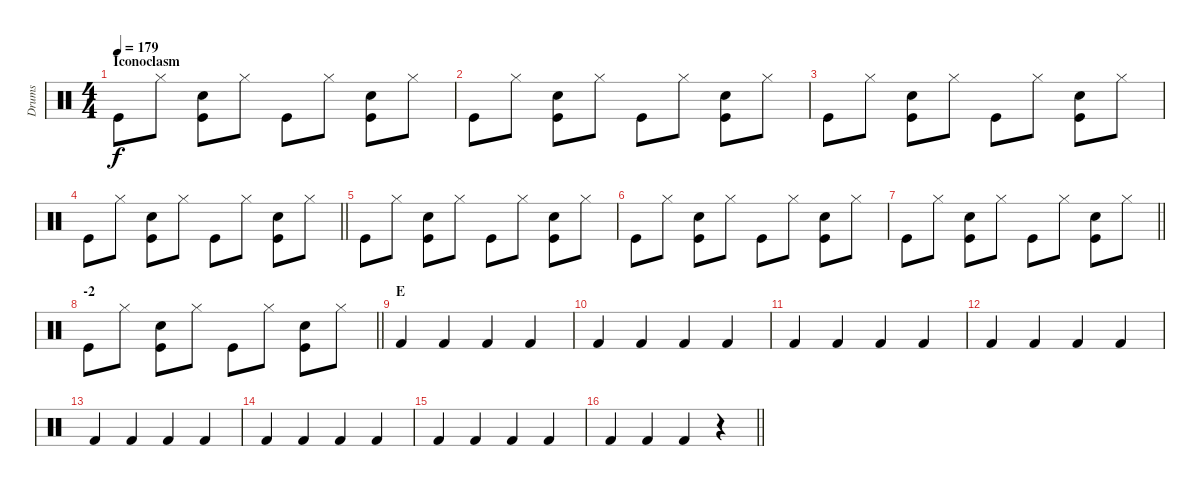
\track ("Drums" "Drums") {instrument percussion}
\staff {score}
\articulation defaults
\ts (4 4)
\section ("" "Iconoclasm")
\tempo 179
\clef neutral
\ks c "Kick (hit)".8{dy f} "Hi-Hat (closed)".8
("Snare (hit) 2" "Kick (hit)").8 "Hi-Hat (closed)".8 "Kick (hit)".8 "Hi-Hat (closed)".8 ("Snare (hit) 2" "Kick (hit)").8 "Hi-Hat (closed)".8 |
"Kick (hit)".8 "Hi-Hat (closed)".8 ("Snare (hit) 2" "Kick (hit)").8 "Hi-Hat (closed)".8 "Kick (hit)".8 "Hi-Hat (closed)".8 ("Snare (hit) 2" "Kick (hit)").8 "Hi-Hat (closed)".8 |
"Kick (hit)".8 "Hi-Hat (closed)".8 ("Snare (hit) 2" "Kick (hit)").8 "Hi-Hat (closed)".8 "Kick (hit)".8 "Hi-Hat (closed)".8 ("Snare (hit) 2" "Kick (hit)").8 "Hi-Hat (closed)".8 |
\barLineRight lightlight "Kick (hit)".8 "Hi-Hat (closed)".8
("Snare (hit) 2" "Kick (hit)").8 "Hi-Hat (closed)".8 "Kick (hit)".8 "Hi-Hat (closed)".8 ("Snare (hit) 2" "Kick (hit)").8 "Hi-Hat (closed)".8 |
"Kick (hit)".8 "Hi-Hat (closed)".8 ("Snare (hit) 2" "Kick (hit)").8 "Hi-Hat (closed)".8 "Kick (hit)".8 "Hi-Hat (closed)".8 ("Snare (hit) 2" "Kick (hit)").8 "Hi-Hat (closed)".8 |
"Kick (hit)".8 "Hi-Hat (closed)".8 ("Snare (hit) 2" "Kick (hit)").8 "Hi-Hat (closed)".8 "Kick (hit)".8 "Hi-Hat (closed)".8 ("Snare (hit) 2" "Kick (hit)").8 "Hi-Hat (closed)".8 |
\barLineRight lightlight "Kick (hit)".8 "Hi-Hat (closed)".8
("Snare (hit) 2" "Kick (hit)").8 "Hi-Hat (closed)".8 "Kick (hit)".8 "Hi-Hat (closed)".8 ("Snare (hit) 2" "Kick (hit)").8 "Hi-Hat (closed)".8 |
\section ("" "-2")
\barLineRight lightlight "Kick (hit)".8 "Hi-Hat (closed)".8
("Snare (hit) 2" "Kick (hit)").8 "Hi-Hat (closed)".8 "Kick (hit)".8 "Hi-Hat (closed)".8 ("Snare (hit) 2" "Kick (hit)").8 "Hi-Hat (closed)".8 |
\section ("" "E")
"Kick (hit) 2".4 "Kick (hit) 2".4 "Kick (hit) 2".4 "Kick (hit) 2".4 |
"Kick (hit) 2".4 "Kick (hit) 2".4 "Kick (hit) 2".4 "Kick (hit) 2".4 |
"Kick (hit) 2".4 "Kick (hit) 2".4 "Kick (hit) 2".4 "Kick (hit) 2".4 |
"Kick (hit) 2".4 "Kick (hit) 2".4 "Kick (hit) 2".4 "Kick (hit) 2".4 |
"Kick (hit) 2".4 "Kick (hit) 2".4 "Kick (hit) 2".4 "Kick (hit) 2".4 |
"Kick (hit) 2".4 "Kick (hit) 2".4 "Kick (hit) 2".4 "Kick (hit) 2".4 |
"Kick (hit) 2".4 "Kick (hit) 2".4 "Kick (hit) 2".4 "Kick (hit) 2".4 |
\barLineRight lightlight "Kick (hit) 2".4 "Kick (hit) 2".4 "Kick (hit) 2".4
r.4
